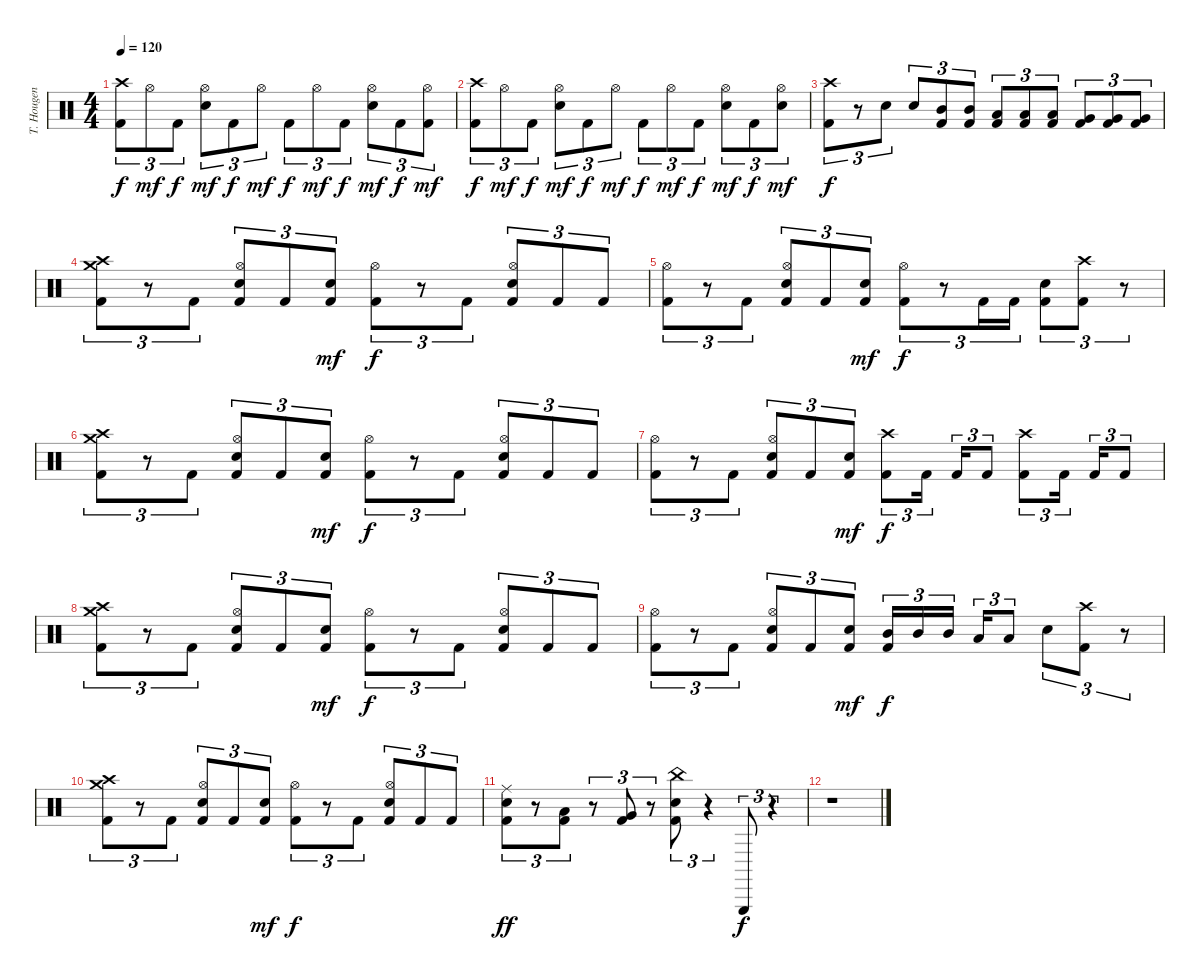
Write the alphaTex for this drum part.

\track ("T. Hougen - Drums" "T. Hougen ") {instrument percussion}
\staff {score}
\articulation defaults
\ts (4 4)
\tempo 120
\clef neutral
\ks c
("Crash high (hit)" "Kick (hit) 2").8{tu (3 2) dy f} "Hi-Hat (open)".8{tu (3 2) dy mf} "Kick (hit) 2".8{tu (3 2) dy f} ("Hi-Hat (open)" "Electric Snare (hit)").8{tu (3 2) dy mf} "Kick (hit) 2".8{tu (3 2) dy f} "Hi-Hat (open)".8{tu (3 2) dy mf} "Kick (hit) 2".8{tu (3 2) dy f} "Hi-Hat (open)".8{tu (3 2) dy mf} "Kick (hit) 2".8{tu (3 2) dy f} ("Hi-Hat (open)" "Electric Snare (hit)").8{tu (3 2) dy mf} "Kick (hit) 2".8{tu (3 2) dy f} ("Hi-Hat (open)" "Kick (hit) 2").8{tu (3 2) dy mf} |
("Crash high (hit)" "Kick (hit) 2").8{tu (3 2) dy f} "Hi-Hat (open)".8{tu (3 2) dy mf} "Kick (hit) 2".8{tu (3 2) dy f} ("Hi-Hat (open)" "Electric Snare (hit)").8{tu (3 2) dy mf} "Kick (hit) 2".8{tu (3 2) dy f} "Hi-Hat (open)".8{tu (3 2) dy mf} "Kick (hit) 2".8{tu (3 2) dy f} "Hi-Hat (open)".8{tu (3 2) dy mf} "Kick (hit) 2".8{tu (3 2) dy f} ("Hi-Hat (open)" "Electric Snare (hit)").8{tu (3 2) dy mf} "Kick (hit) 2".8{tu (3 2) dy f} ("Hi-Hat (open)" "Electric Snare (hit)").8{tu (3 2) dy mf} |
("Crash high (hit)" "Kick (hit) 2").8{tu (3 2) dy f} r.8{tu (3 2)} "Electric Snare (hit)".8{tu (3 2)} "Electric Snare (hit)".8{tu (3 2)} ("Mid Tom (hit)" "Kick (hit) 2").8{tu (3 2)} ("Mid Tom (hit)" "Kick (hit) 2").8{tu (3 2)} ("Low Tom (hit)" "Kick (hit) 2").8{tu (3 2)} ("Low Tom (hit)" "Kick (hit) 2").8{tu (3 2)} ("Low Tom (hit)" "Kick (hit) 2").8{tu (3 2)} ("Very Low Tom (hit)" "Kick (hit) 2").8{tu (3 2)} ("Very Low Tom (hit)" "Kick (hit) 2").8{tu (3 2)} ("Very Low Tom (hit)" "Kick (hit) 2").8{tu (3 2)} |
("Crash medium (hit)" "Crash high (hit)" "Kick (hit) 2").8{tu (3 2)} r.8{tu (3 2)} "Kick (hit) 2".8{tu (3 2)} ("Hi-Hat (open)" "Electric Snare (hit)" "Kick (hit) 2").8{tu (3 2)} "Kick (hit) 2".8{tu (3 2)} ("Electric Snare (hit)" "Kick (hit) 2").8{tu (3 2) dy mf} ("Hi-Hat (open)" "Kick (hit) 2").8{tu (3 2) dy f} r.8{tu (3 2)} "Kick (hit) 2".8{tu (3 2)} ("Hi-Hat (open)" "Electric Snare (hit)" "Kick (hit) 2").8{tu (3 2)} "Kick (hit) 2".8{tu (3 2)} "Kick (hit) 2".8{tu (3 2)} |
("Hi-Hat (open)" "Kick (hit) 2").8{tu (3 2)} r.8{tu (3 2)} "Kick (hit) 2".8{tu (3 2)} ("Hi-Hat (open)" "Electric Snare (hit)" "Kick (hit) 2").8{tu (3 2)} "Kick (hit) 2".8{tu (3 2)} ("Electric Snare (hit)" "Kick (hit) 2").8{tu (3 2) dy mf} ("Hi-Hat (open)" "Kick (hit) 2").8{tu (3 2) dy f} r.8{tu (3 2)} "Kick (hit) 2".16{tu (3 2)} "Kick (hit) 2".16{tu (3 2)} ("Electric Snare (hit)" "Kick (hit) 2").8{tu (3 2)} ("Crash high (hit)" "Kick (hit) 2").8{tu (3 2)} r.8{tu (3 2)} |
("Crash medium (hit)" "Crash high (hit)" "Kick (hit) 2").8{tu (3 2)} r.8{tu (3 2)} "Kick (hit) 2".8{tu (3 2)} ("Hi-Hat (open)" "Electric Snare (hit)" "Kick (hit) 2").8{tu (3 2)} "Kick (hit) 2".8{tu (3 2)} ("Electric Snare (hit)" "Kick (hit) 2").8{tu (3 2) dy mf} ("Hi-Hat (open)" "Kick (hit) 2").8{tu (3 2) dy f} r.8{tu (3 2)} "Kick (hit) 2".8{tu (3 2)} ("Hi-Hat (open)" "Electric Snare (hit)" "Kick (hit) 2").8{tu (3 2)} "Kick (hit) 2".8{tu (3 2)} "Kick (hit) 2".8{tu (3 2)} |
("Hi-Hat (open)" "Kick (hit) 2").8{tu (3 2)} r.8{tu (3 2)} "Kick (hit) 2".8{tu (3 2)} ("Hi-Hat (open)" "Electric Snare (hit)" "Kick (hit) 2").8{tu (3 2)} "Kick (hit) 2".8{tu (3 2)} ("Electric Snare (hit)" "Kick (hit) 2").8{tu (3 2) dy mf} ("Crash high (hit)" "Kick (hit) 2").8{tu (3 2) dy f} "Kick (hit) 2".16{tu (3 2)} "Kick (hit) 2".16{tu (3 2)} "Kick (hit) 2".8{tu (3 2)} ("Crash high (hit)" "Kick (hit) 2").8{tu (3 2)} "Kick (hit) 2".16{tu (3 2)} "Kick (hit) 2".16{tu (3 2)} "Kick (hit) 2".8{tu (3 2)} |
("Crash medium (hit)" "Crash high (hit)" "Kick (hit) 2").8{tu (3 2)} r.8{tu (3 2)} "Kick (hit) 2".8{tu (3 2)} ("Hi-Hat (open)" "Electric Snare (hit)" "Kick (hit) 2").8{tu (3 2)} "Kick (hit) 2".8{tu (3 2)} ("Electric Snare (hit)" "Kick (hit) 2").8{tu (3 2) dy mf} ("Hi-Hat (open)" "Kick (hit) 2").8{tu (3 2) dy f} r.8{tu (3 2)} "Kick (hit) 2".8{tu (3 2)} ("Hi-Hat (open)" "Electric Snare (hit)" "Kick (hit) 2").8{tu (3 2)} "Kick (hit) 2".8{tu (3 2)} "Kick (hit) 2".8{tu (3 2)} |
("Hi-Hat (open)" "Kick (hit) 2").8{tu (3 2)} r.8{tu (3 2)} "Kick (hit) 2".8{tu (3 2)} ("Hi-Hat (open)" "Electric Snare (hit)" "Kick (hit) 2").8{tu (3 2)} "Kick (hit) 2".8{tu (3 2)} ("Electric Snare (hit)" "Kick (hit) 2").8{tu (3 2) dy mf} ("Mid Tom (hit)" "Kick (hit) 2").16{tu (3 2) dy f} "Mid Tom (hit)".16{tu (3 2)} "Mid Tom (hit)".16{tu (3 2)} "Low Tom (hit)".16{tu (3 2)} "Low Tom (hit)".8{tu (3 2)} "Electric Snare (hit)".8{tu (3 2)} ("Crash high (hit)" "Kick (hit) 2").8{tu (3 2)} r.8{tu (3 2)} |
("Crash medium (hit)" "Crash high (hit)" "Kick (hit) 2").8{tu (3 2)} r.8{tu (3 2)} "Kick (hit) 2".8{tu (3 2)} ("Hi-Hat (open)" "Electric Snare (hit)" "Kick (hit) 2").8{tu (3 2)} "Kick (hit) 2".8{tu (3 2)} ("Electric Snare (hit)" "Kick (hit) 2").8{tu (3 2) dy mf} ("Hi-Hat (open)" "Kick (hit) 2").8{tu (3 2) dy f} r.8{tu (3 2)} "Kick (hit) 2".8{tu (3 2)} ("Hi-Hat (open)" "Electric Snare (hit)" "Kick (hit) 2").8{tu (3 2)} "Kick (hit) 2".8{tu (3 2)} "Kick (hit) 2".8{tu (3 2)} |
("Ride (middle)" "Electric Snare (hit)" "Kick (hit) 2").8{tu (3 2) dy ff} r.8{tu (3 2)} ("Low Tom (hit)" "Kick (hit) 2").8{tu (3 2)} r.8{tu (3 2)} ("Very Low Tom (hit)" "Kick (hit) 2").8{tu (3 2)} r.8{tu (3 2)} ("China (hit)" "Electric Snare (hit)" "Kick (hit) 2").8{tu (3 2)} r.4{tu (3 2)} "Triangle (hit)".8{tu (3 2) dy f} r.4{tu (3 2)} |
r.1
